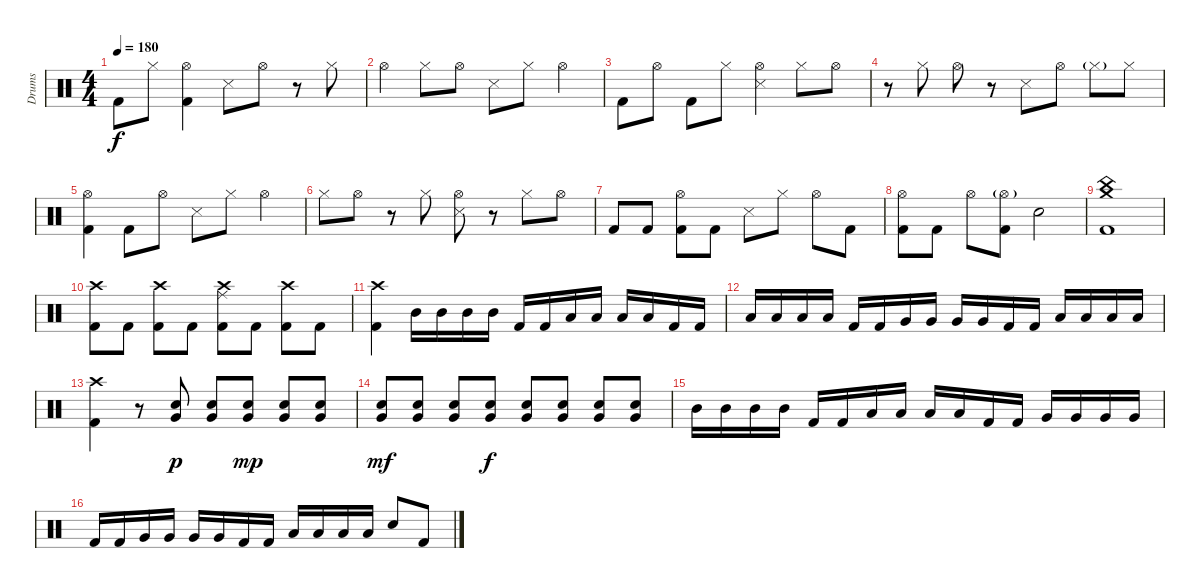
\track ("Drums" "Drums") {instrument percussion}
\staff {score}
\articulation defaults
\ts (4 4)
\tempo 180
\clef neutral
\ks c "Kick (hit) 2".8{dy f} "Hi-Hat (closed)".8
("Hi-Hat (open)" "Kick (hit) 2").4 "Metronome (hit)".8 "Hi-Hat (open)".8 r.8 "Hi-Hat (closed)".8 |
"Hi-Hat (open)".4 "Hi-Hat (closed)".8 "Hi-Hat (open)".8 "Metronome (hit)".8 "Hi-Hat (closed)".8 "Hi-Hat (open)".4 |
"Kick (hit) 2".8 "Hi-Hat (open)".8 "Kick (hit) 2".8 "Hi-Hat (closed)".8 ("Hi-Hat (open)" "Metronome (hit)").4 "Hi-Hat (closed)".8 "Hi-Hat (open)".8 |
r.8 "Hi-Hat (closed)".8 "Hi-Hat (open)".8 r.8 "Metronome (hit)".8 "Hi-Hat (open)".8 "Hi-Hat (closed)"{g}.8 "Hi-Hat (closed)".8 |
("Hi-Hat (open)" "Kick (hit) 2").4 "Kick (hit) 2".8 "Hi-Hat (open)".8 "Metronome (hit)".8 "Hi-Hat (closed)".8 "Hi-Hat (open)".4 |
"Hi-Hat (closed)".8 "Hi-Hat (open)".8 r.8 "Hi-Hat (closed)".8 ("Hi-Hat (open)" "Metronome (hit)").8 r.8 "Hi-Hat (closed)".8 "Hi-Hat (open)".8 |
"Kick (hit) 2".8 "Kick (hit) 2".8 ("Hi-Hat (open)" "Kick (hit) 2").8 "Kick (hit) 2".8 "Metronome (hit)".8 "Hi-Hat (closed)".8 "Hi-Hat (open)".8 "Kick (hit) 2".8 |
("Hi-Hat (open)" "Kick (hit) 2").8 "Kick (hit) 2".8 "Hi-Hat (open)".8 ("Hi-Hat (open)"{g} "Kick (hit) 2").8 "Electric Snare (hit)".2 |
("Crash medium (hit)" "China (hit)" "Kick (hit) 2").1 |
("Crash high (hit)" "Kick (hit) 2").8 "Kick (hit) 2".8 ("Crash high (hit)" "Kick (hit) 2").8 "Kick (hit) 2".8 ("Crash high (hit)" "Ride (middle)" "Kick (hit) 2").8 "Kick (hit) 2".8 ("Crash high (hit)" "Kick (hit) 2").8 "Kick (hit) 2".8 |
("Crash high (hit)" "Kick (hit) 2").4 "Mid Tom (hit)".16 "Mid Tom (hit)".16 "Mid Tom (hit)".16 "Mid Tom (hit)".16 "Kick (hit) 2".16 "Kick (hit) 2".16 "Low Tom (hit)".16 "Low Tom (hit)".16 "Low Tom (hit)".16 "Low Tom (hit)".16 "Kick (hit) 2".16 "Kick (hit) 2".16 |
"Low Tom (hit)".16 "Low Tom (hit)".16 "Low Tom (hit)".16 "Low Tom (hit)".16 "Kick (hit) 2".16 "Kick (hit) 2".16 "Very Low Tom (hit)".16 "Very Low Tom (hit)".16 "Very Low Tom (hit)".16 "Very Low Tom (hit)".16 "Kick (hit) 2".16 "Kick (hit) 2".16 "Low Floor Tom (hit)".16 "Low Floor Tom (hit)".16 "Low Floor Tom (hit)".16 "Low Floor Tom (hit)".16 |
("Crash high (hit)" "Kick (hit) 2").4 r.8 ("Very Low Tom (hit)" "Electric Snare (hit)").8{dy p} ("Very Low Tom (hit)" "Electric Snare (hit)").8 ("Very Low Tom (hit)" "Electric Snare (hit)").8{dy mp} ("Very Low Tom (hit)" "Electric Snare (hit)").8 ("Very Low Tom (hit)" "Electric Snare (hit)").8 |
("Very Low Tom (hit)" "Electric Snare (hit)").8{dy mf} ("Very Low Tom (hit)" "Electric Snare (hit)").8 ("Very Low Tom (hit)" "Electric Snare (hit)").8 ("Very Low Tom (hit)" "Electric Snare (hit)").8{dy f} ("Very Low Tom (hit)" "Electric Snare (hit)").8 ("Very Low Tom (hit)" "Electric Snare (hit)").8 ("Very Low Tom (hit)" "Electric Snare (hit)").8 ("Very Low Tom (hit)" "Electric Snare (hit)").8 |
"Mid Tom (hit)".16 "Mid Tom (hit)".16 "Mid Tom (hit)".16 "Mid Tom (hit)".16 "Kick (hit) 2".16 "Kick (hit) 2".16 "Low Tom (hit)".16 "Low Tom (hit)".16 "Low Tom (hit)".16 "Low Tom (hit)".16 "Kick (hit) 2".16 "Kick (hit) 2".16 "Very Low Tom (hit)".16 "Very Low Tom (hit)".16 "Very Low Tom (hit)".16 "Very Low Tom (hit)".16 |
"Kick (hit) 2".16 "Kick (hit) 2".16 "Very Low Tom (hit)".16 "Very Low Tom (hit)".16 "Very Low Tom (hit)".16 "Very Low Tom (hit)".16 "Kick (hit) 2".16 "Kick (hit) 2".16 "Low Floor Tom (hit)".16 "Low Floor Tom (hit)".16 "Low Floor Tom (hit)".16 "Low Floor Tom (hit)".16 "Electric Snare (hit)".8 "Kick (hit) 2".8
